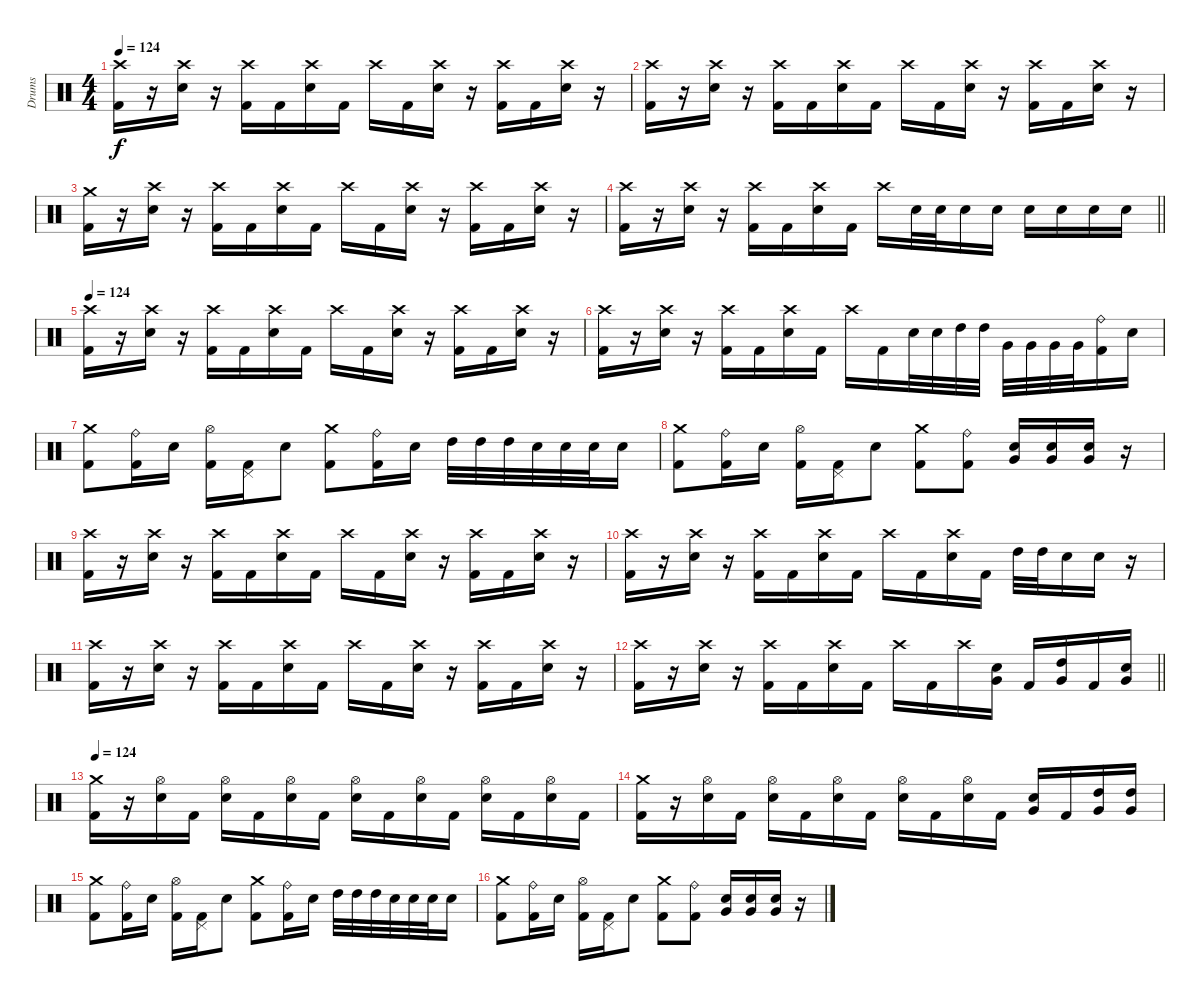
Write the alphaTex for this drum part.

\track ("Drums" "Drums") {instrument percussion}
\staff {score}
\articulation defaults
\ts (4 4)
\section ("" "")
\tempo 124
\clef neutral
\ks c
("Crash high (hit)" "Kick (hit) 2").16{dy f} r.16 ("Crash high (hit)" "Snare (hit) 2").16 r.16 ("Crash high (hit)" "Kick (hit) 2").16 "Kick (hit) 2".16 ("Crash high (hit)" "Snare (hit) 2").16 "Kick (hit) 2".16 "Crash high (hit)".16 "Kick (hit) 2".16 ("Crash high (hit)" "Snare (hit) 2").16 r.16 ("Crash high (hit)" "Kick (hit) 2").16 "Kick (hit) 2".16 ("Crash high (hit)" "Snare (hit) 2").16 r.16 |
("Crash high (hit)" "Kick (hit) 2").16 r.16 ("Crash high (hit)" "Snare (hit) 2").16 r.16 ("Crash high (hit)" "Kick (hit) 2").16 "Kick (hit) 2".16 ("Crash high (hit)" "Snare (hit) 2").16 "Kick (hit) 2".16 "Crash high (hit)".16 "Kick (hit) 2".16 ("Crash high (hit)" "Snare (hit) 2").16 r.16 ("Crash high (hit)" "Kick (hit) 2").16 "Kick (hit) 2".16 ("Crash high (hit)" "Snare (hit) 2").16 r.16 |
("Crash medium (hit)" "Kick (hit) 2").16 r.16 ("Crash high (hit)" "Snare (hit) 2").16 r.16 ("Crash high (hit)" "Kick (hit) 2").16 "Kick (hit) 2".16 ("Crash high (hit)" "Snare (hit) 2").16 "Kick (hit) 2".16 "Crash high (hit)".16 "Kick (hit) 2".16 ("Crash high (hit)" "Snare (hit) 2").16 r.16 ("Crash high (hit)" "Kick (hit) 2").16 "Kick (hit) 2".16 ("Crash high (hit)" "Snare (hit) 2").16 r.16 |
\barLineRight lightlight
("Crash high (hit)" "Kick (hit) 2").16 r.16 ("Crash high (hit)" "Snare (hit) 2").16 r.16 ("Crash high (hit)" "Kick (hit) 2").16 "Kick (hit) 2".16 ("Crash high (hit)" "Snare (hit) 2").16 "Kick (hit) 2".16 "Crash high (hit)".16 "Snare (hit) 2".32 "Snare (hit) 2".32 "Snare (hit) 2".16 "Snare (hit) 2".16 "Snare (hit) 2".16 "Snare (hit) 2".16 "Snare (hit) 2".16 "Snare (hit) 2".16 |
\section ("" "")
\tempo 124
("Crash high (hit)" "Kick (hit) 2").16 r.16 ("Crash high (hit)" "Snare (hit) 2").16 r.16 ("Crash high (hit)" "Kick (hit) 2").16 "Kick (hit) 2".16 ("Crash high (hit)" "Snare (hit) 2").16 "Kick (hit) 2".16 "Crash high (hit)".16 "Kick (hit) 2".16 ("Crash high (hit)" "Snare (hit) 2").16 r.16 ("Crash high (hit)" "Kick (hit) 2").16 "Kick (hit) 2".16 ("Crash high (hit)" "Snare (hit) 2").16 r.16 |
("Crash high (hit)" "Kick (hit) 2").16 r.16 ("Crash high (hit)" "Snare (hit) 2").16 r.16 ("Crash high (hit)" "Kick (hit) 2").16 "Kick (hit) 2".16 ("Crash high (hit)" "Snare (hit) 2").16 "Kick (hit) 2".16 "Crash high (hit)".16 "Kick (hit) 2".16 "Snare (hit) 2".32 "Snare (hit) 2".32 "High Tom (hit)".32 "High Tom (hit)".32 "Very Low Tom (hit)".32 "Very Low Tom (hit)".32 "Very Low Tom (hit)".32 "Very Low Tom (hit)".32 ("Ride (bell)" "Kick (hit) 2").16 "Snare (hit) 2".16 |
("Crash medium (hit)" "Kick (hit) 2").8 ("Ride (bell)" "Kick (hit) 2").16 "Snare (hit) 2".16 ("Hi-Hat (open)" "Kick (hit) 2").16 ("Pedal Hi-Hat (hit)" "Kick (hit) 2").16 "Snare (hit) 2".8 ("Crash medium (hit)" "Kick (hit) 2").8 ("Ride (bell)" "Kick (hit) 2").16 "Snare (hit) 2".16 "High Tom (hit)".32 "High Tom (hit)".32 "High Tom (hit)".32 "Snare (hit) 2".32 "Snare (hit) 2".32 "Snare (hit) 2".32 "Snare (hit) 2".16 |
("Crash medium (hit)" "Kick (hit) 2").8 ("Ride (bell)" "Kick (hit) 2").16 "Snare (hit) 2".16 ("Hi-Hat (open)" "Kick (hit) 2").16 ("Pedal Hi-Hat (hit)" "Kick (hit) 2").16 "Snare (hit) 2".8 ("Crash medium (hit)" "Kick (hit) 2").8 ("Ride (bell)" "Kick (hit) 2").8 ("Snare (hit) 2" "Very Low Tom (hit)").16 ("Snare (hit) 2" "Very Low Tom (hit)").16 ("Snare (hit) 2" "Very Low Tom (hit)").16 r.16 |
("Crash high (hit)" "Kick (hit) 2").16 r.16 ("Crash high (hit)" "Snare (hit) 2").16 r.16 ("Crash high (hit)" "Kick (hit) 2").16 "Kick (hit) 2".16 ("Crash high (hit)" "Snare (hit) 2").16 "Kick (hit) 2".16 "Crash high (hit)".16 "Kick (hit) 2".16 ("Crash high (hit)" "Snare (hit) 2").16 r.16 ("Crash high (hit)" "Kick (hit) 2").16 "Kick (hit) 2".16 ("Crash high (hit)" "Snare (hit) 2").16 r.16 |
("Crash high (hit)" "Kick (hit) 2").16 r.16 ("Crash high (hit)" "Snare (hit) 2").16 r.16 ("Crash high (hit)" "Kick (hit) 2").16 "Kick (hit) 2".16 ("Crash high (hit)" "Snare (hit) 2").16 "Kick (hit) 2".16 "Crash high (hit)".16 "Kick (hit) 2".16 ("Crash high (hit)" "Snare (hit) 2").16 "Kick (hit) 2".16 "High Tom (hit)".32 "High Tom (hit)".32 "Snare (hit) 2".16 "Snare (hit) 2".16 r.16 |
("Crash high (hit)" "Kick (hit) 2").16 r.16 ("Crash high (hit)" "Snare (hit) 2").16 r.16 ("Crash high (hit)" "Kick (hit) 2").16 "Kick (hit) 2".16 ("Crash high (hit)" "Snare (hit) 2").16 "Kick (hit) 2".16 "Crash high (hit)".16 "Kick (hit) 2".16 ("Crash high (hit)" "Snare (hit) 2").16 r.16 ("Crash high (hit)" "Kick (hit) 2").16 "Kick (hit) 2".16 ("Crash high (hit)" "Snare (hit) 2").16 r.16 |
\barLineRight lightlight
("Crash high (hit)" "Kick (hit) 2").16 r.16 ("Crash high (hit)" "Snare (hit) 2").16 r.16 ("Crash high (hit)" "Kick (hit) 2").16 "Kick (hit) 2".16 ("Crash high (hit)" "Snare (hit) 2").16 "Kick (hit) 2".16 "Crash high (hit)".16 "Kick (hit) 2".16 "Crash high (hit)".16 ("Snare (hit) 2" "Very Low Tom (hit)").16 "Kick (hit) 2".16 ("High Tom (hit)" "Very Low Tom (hit)").16 "Kick (hit) 2".16 ("Snare (hit) 2" "Very Low Tom (hit)").16 |
\tempo 124
("Crash medium (hit)" "Kick (hit) 2").16 r.16 ("Hi-Hat (open)" "Snare (hit) 2").16 "Kick (hit) 2".16 ("Hi-Hat (open)" "Snare (hit) 2").16 "Kick (hit) 2".16 ("Hi-Hat (open)" "Snare (hit) 2").16 "Kick (hit) 2".16 ("Hi-Hat (open)" "Snare (hit) 2").16 "Kick (hit) 2".16 ("Hi-Hat (open)" "Snare (hit) 2").16 "Kick (hit) 2".16 ("Hi-Hat (open)" "Snare (hit) 2").16 "Kick (hit) 2".16 ("Hi-Hat (open)" "Snare (hit) 2").16 "Kick (hit) 2".16 |
("Crash medium (hit)" "Kick (hit) 2").16 r.16 ("Hi-Hat (open)" "Snare (hit) 2").16 "Kick (hit) 2".16 ("Hi-Hat (open)" "Snare (hit) 2").16 "Kick (hit) 2".16 ("Hi-Hat (open)" "Snare (hit) 2").16 "Kick (hit) 2".16 ("Hi-Hat (open)" "Snare (hit) 2").16 "Kick (hit) 2".16 ("Hi-Hat (open)" "Snare (hit) 2").16 "Kick (hit) 2".16 ("Snare (hit) 2" "Very Low Tom (hit)").16 "Kick (hit) 2".16 ("High Tom (hit)" "Very Low Tom (hit)").16 ("High Tom (hit)" "Very Low Tom (hit)").16 |
("Crash medium (hit)" "Kick (hit) 2").8 ("Ride (bell)" "Kick (hit) 2").16 "Snare (hit) 2".16 ("Hi-Hat (open)" "Kick (hit) 2").16 ("Pedal Hi-Hat (hit)" "Kick (hit) 2").16 "Snare (hit) 2".8 ("Crash medium (hit)" "Kick (hit) 2").8 ("Ride (bell)" "Kick (hit) 2").16 "Snare (hit) 2".16 "High Tom (hit)".32 "High Tom (hit)".32 "High Tom (hit)".32 "Snare (hit) 2".32 "Snare (hit) 2".32 "Snare (hit) 2".32 "Snare (hit) 2".16 |
("Crash medium (hit)" "Kick (hit) 2").8 ("Ride (bell)" "Kick (hit) 2").16 "Snare (hit) 2".16 ("Hi-Hat (open)" "Kick (hit) 2").16 ("Pedal Hi-Hat (hit)" "Kick (hit) 2").16 "Snare (hit) 2".8 ("Crash medium (hit)" "Kick (hit) 2").8 ("Ride (bell)" "Kick (hit) 2").8 ("Snare (hit) 2" "Very Low Tom (hit)").16 ("Snare (hit) 2" "Very Low Tom (hit)").16 ("Snare (hit) 2" "Very Low Tom (hit)").16 r.16
